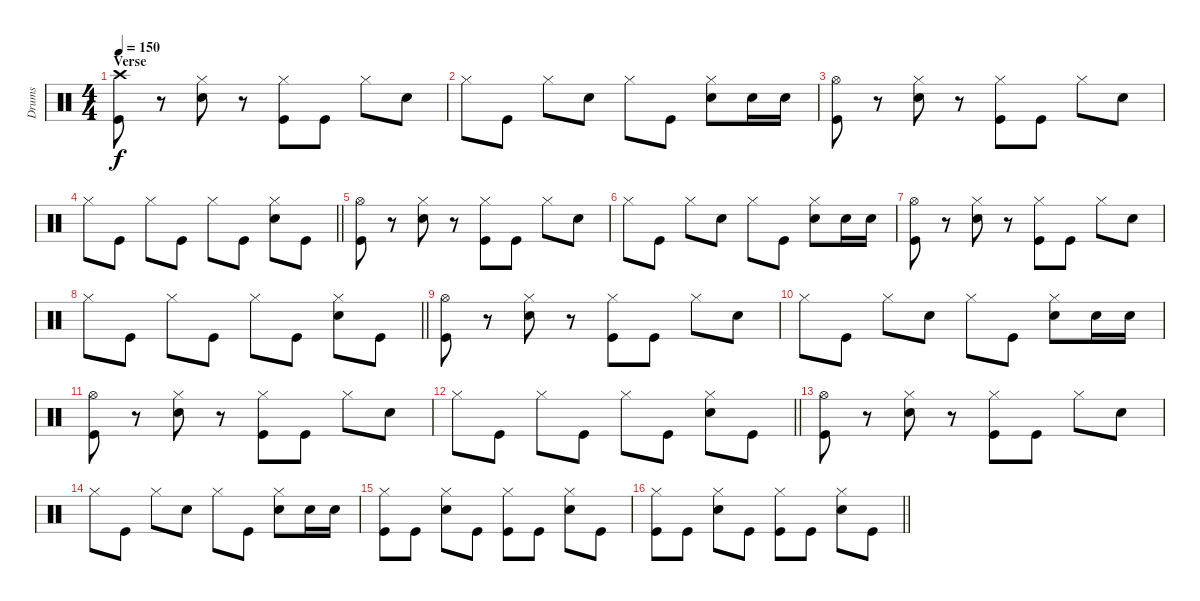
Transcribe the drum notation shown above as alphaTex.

\track ("Drums" "Drums") {instrument percussion}
\staff {score}
\articulation defaults
\ts (4 4)
\section ("" "Verse")
\tempo 150
\clef neutral
\ks c
("Crash high (hit)" "Kick (hit)").8{dy f} r.8 ("Hi-Hat (closed)" "Snare (hit) 2").8 r.8 ("Hi-Hat (closed)" "Kick (hit)").8 "Kick (hit)".8 "Hi-Hat (closed)".8 "Snare (hit) 2".8 |
"Hi-Hat (closed)".8 "Kick (hit)".8 "Hi-Hat (closed)".8 "Snare (hit) 2".8 "Hi-Hat (closed)".8 "Kick (hit)".8 ("Hi-Hat (closed)" "Snare (hit) 2").8 "Snare (hit) 2".16 "Snare (hit) 2".16 |
("Hi-Hat (open)" "Kick (hit)").8 r.8 ("Hi-Hat (closed)" "Snare (hit) 2").8 r.8 ("Hi-Hat (closed)" "Kick (hit)").8 "Kick (hit)".8 "Hi-Hat (closed)".8 "Snare (hit) 2".8 |
\barLineRight lightlight "Hi-Hat (closed)".8 "Kick (hit)".8 "Hi-Hat (closed)".8 "Kick (hit)".8 "Hi-Hat (closed)".8 "Kick (hit)".8
("Hi-Hat (closed)" "Snare (hit) 2").8 "Kick (hit)".8 |
("Hi-Hat (open)" "Kick (hit)").8 r.8 ("Hi-Hat (closed)" "Snare (hit) 2").8 r.8 ("Hi-Hat (closed)" "Kick (hit)").8 "Kick (hit)".8 "Hi-Hat (closed)".8 "Snare (hit) 2".8 |
"Hi-Hat (closed)".8 "Kick (hit)".8 "Hi-Hat (closed)".8 "Snare (hit) 2".8 "Hi-Hat (closed)".8 "Kick (hit)".8 ("Hi-Hat (closed)" "Snare (hit) 2").8 "Snare (hit) 2".16 "Snare (hit) 2".16 |
("Hi-Hat (open)" "Kick (hit)").8 r.8 ("Hi-Hat (closed)" "Snare (hit) 2").8 r.8 ("Hi-Hat (closed)" "Kick (hit)").8 "Kick (hit)".8 "Hi-Hat (closed)".8 "Snare (hit) 2".8 |
\barLineRight lightlight "Hi-Hat (closed)".8 "Kick (hit)".8 "Hi-Hat (closed)".8 "Kick (hit)".8 "Hi-Hat (closed)".8 "Kick (hit)".8
("Hi-Hat (closed)" "Snare (hit) 2").8 "Kick (hit)".8 |
("Hi-Hat (open)" "Kick (hit)").8 r.8 ("Hi-Hat (closed)" "Snare (hit) 2").8 r.8 ("Hi-Hat (closed)" "Kick (hit)").8 "Kick (hit)".8 "Hi-Hat (closed)".8 "Snare (hit) 2".8 |
"Hi-Hat (closed)".8 "Kick (hit)".8 "Hi-Hat (closed)".8 "Snare (hit) 2".8 "Hi-Hat (closed)".8 "Kick (hit)".8 ("Hi-Hat (closed)" "Snare (hit) 2").8 "Snare (hit) 2".16 "Snare (hit) 2".16 |
("Hi-Hat (open)" "Kick (hit)").8 r.8 ("Hi-Hat (closed)" "Snare (hit) 2").8 r.8 ("Hi-Hat (closed)" "Kick (hit)").8 "Kick (hit)".8 "Hi-Hat (closed)".8 "Snare (hit) 2".8 |
\barLineRight lightlight "Hi-Hat (closed)".8 "Kick (hit)".8 "Hi-Hat (closed)".8 "Kick (hit)".8 "Hi-Hat (closed)".8 "Kick (hit)".8
("Hi-Hat (closed)" "Snare (hit) 2").8 "Kick (hit)".8 |
("Hi-Hat (open)" "Kick (hit)").8 r.8 ("Hi-Hat (closed)" "Snare (hit) 2").8 r.8 ("Hi-Hat (closed)" "Kick (hit)").8 "Kick (hit)".8 "Hi-Hat (closed)".8 "Snare (hit) 2".8 |
"Hi-Hat (closed)".8 "Kick (hit)".8 "Hi-Hat (closed)".8 "Snare (hit) 2".8 "Hi-Hat (closed)".8 "Kick (hit)".8 ("Hi-Hat (closed)" "Snare (hit) 2").8 "Snare (hit) 2".16 "Snare (hit) 2".16 |
("Hi-Hat (closed)" "Kick (hit)").8 "Kick (hit)".8 ("Hi-Hat (closed)" "Snare (hit) 2").8 "Kick (hit)".8 ("Hi-Hat (closed)" "Kick (hit)").8 "Kick (hit)".8 ("Hi-Hat (closed)" "Snare (hit) 2").8 "Kick (hit)".8 |
\barLineRight lightlight
("Hi-Hat (closed)" "Kick (hit)").8 "Kick (hit)".8 ("Hi-Hat (closed)" "Snare (hit) 2").8 "Kick (hit)".8 ("Hi-Hat (closed)" "Kick (hit)").8 "Kick (hit)".8 ("Hi-Hat (closed)" "Snare (hit) 2").8 "Kick (hit)".8
